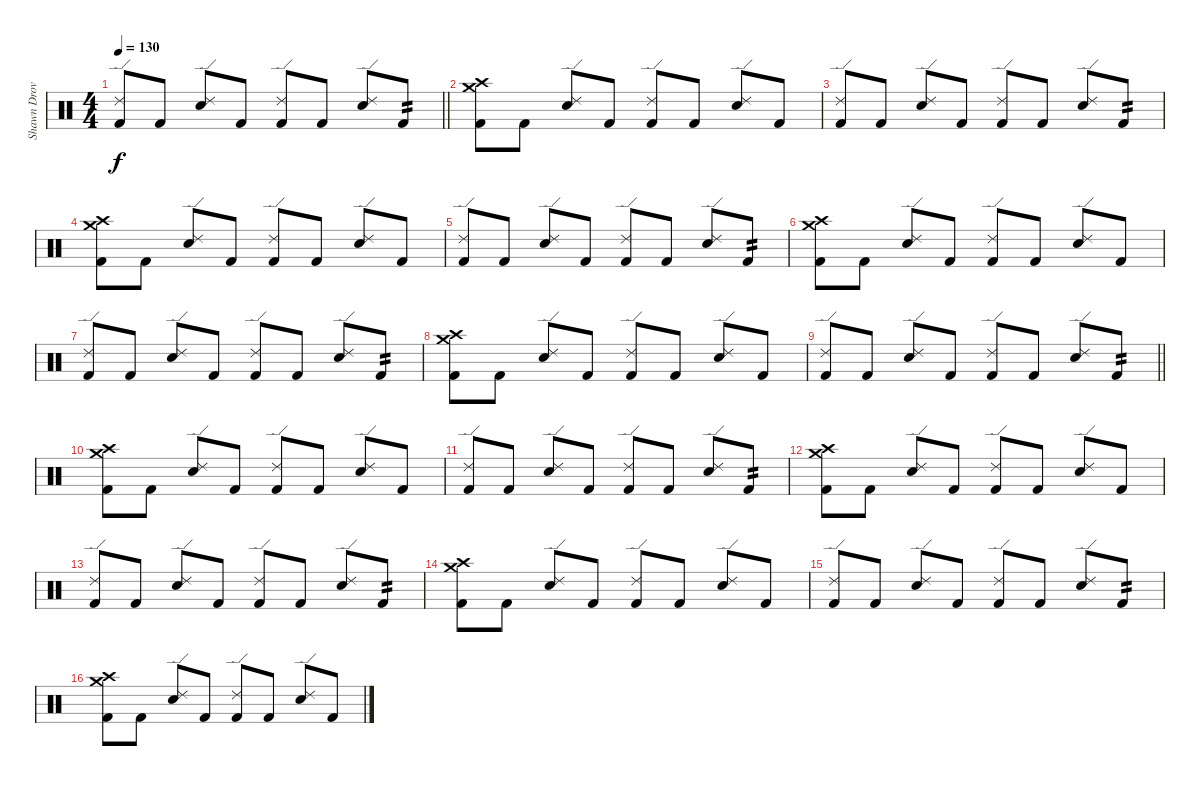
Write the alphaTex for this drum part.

\track ("Shawn Drover" "Shawn Drov") {instrument percussion}
\staff {score}
\articulation defaults
\ts (4 4)
\tempo 130
\clef neutral
\barLineRight lightlight
\ks c
("Ride (edge) 2" "Kick (hit) 2").8{dy f} "Kick (hit) 2".8 ("Ride (edge) 2" "Snare (hit) 2").8 "Kick (hit) 2".8 ("Ride (edge) 2" "Kick (hit) 2").8 "Kick (hit) 2".8 ("Ride (edge) 2" "Snare (hit) 2").8 "Kick (hit) 2".8{tp 2} |
("Crash high (hit)" "Crash medium (hit)" "Kick (hit) 2").8 "Kick (hit) 2".8 ("Ride (edge) 2" "Snare (hit) 2").8 "Kick (hit) 2".8 ("Ride (edge) 2" "Kick (hit) 2").8 "Kick (hit) 2".8 ("Ride (edge) 2" "Snare (hit) 2").8 "Kick (hit) 2".8 |
("Ride (edge) 2" "Kick (hit) 2").8 "Kick (hit) 2".8 ("Ride (edge) 2" "Snare (hit) 2").8 "Kick (hit) 2".8 ("Ride (edge) 2" "Kick (hit) 2").8 "Kick (hit) 2".8 ("Ride (edge) 2" "Snare (hit) 2").8 "Kick (hit) 2".8{tp 2} |
("Crash high (hit)" "Crash medium (hit)" "Kick (hit) 2").8 "Kick (hit) 2".8 ("Ride (edge) 2" "Snare (hit) 2").8 "Kick (hit) 2".8 ("Ride (edge) 2" "Kick (hit) 2").8 "Kick (hit) 2".8 ("Ride (edge) 2" "Snare (hit) 2").8 "Kick (hit) 2".8 |
("Ride (edge) 2" "Kick (hit) 2").8 "Kick (hit) 2".8 ("Ride (edge) 2" "Snare (hit) 2").8 "Kick (hit) 2".8 ("Ride (edge) 2" "Kick (hit) 2").8 "Kick (hit) 2".8 ("Ride (edge) 2" "Snare (hit) 2").8 "Kick (hit) 2".8{tp 2} |
("Crash high (hit)" "Crash medium (hit)" "Kick (hit) 2").8 "Kick (hit) 2".8 ("Ride (edge) 2" "Snare (hit) 2").8 "Kick (hit) 2".8 ("Ride (edge) 2" "Kick (hit) 2").8 "Kick (hit) 2".8 ("Ride (edge) 2" "Snare (hit) 2").8 "Kick (hit) 2".8 |
("Ride (edge) 2" "Kick (hit) 2").8 "Kick (hit) 2".8 ("Ride (edge) 2" "Snare (hit) 2").8 "Kick (hit) 2".8 ("Ride (edge) 2" "Kick (hit) 2").8 "Kick (hit) 2".8 ("Ride (edge) 2" "Snare (hit) 2").8 "Kick (hit) 2".8{tp 2} |
("Crash high (hit)" "Crash medium (hit)" "Kick (hit) 2").8 "Kick (hit) 2".8 ("Ride (edge) 2" "Snare (hit) 2").8 "Kick (hit) 2".8 ("Ride (edge) 2" "Kick (hit) 2").8 "Kick (hit) 2".8 ("Ride (edge) 2" "Snare (hit) 2").8 "Kick (hit) 2".8 |
\barLineRight lightlight
("Ride (edge) 2" "Kick (hit) 2").8 "Kick (hit) 2".8 ("Ride (edge) 2" "Snare (hit) 2").8 "Kick (hit) 2".8 ("Ride (edge) 2" "Kick (hit) 2").8 "Kick (hit) 2".8 ("Ride (edge) 2" "Snare (hit) 2").8 "Kick (hit) 2".8{tp 2} |
("Crash high (hit)" "Crash medium (hit)" "Kick (hit) 2").8 "Kick (hit) 2".8 ("Ride (edge) 2" "Snare (hit) 2").8 "Kick (hit) 2".8 ("Ride (edge) 2" "Kick (hit) 2").8 "Kick (hit) 2".8 ("Ride (edge) 2" "Snare (hit) 2").8 "Kick (hit) 2".8 |
("Ride (edge) 2" "Kick (hit) 2").8 "Kick (hit) 2".8 ("Ride (edge) 2" "Snare (hit) 2").8 "Kick (hit) 2".8 ("Ride (edge) 2" "Kick (hit) 2").8 "Kick (hit) 2".8 ("Ride (edge) 2" "Snare (hit) 2").8 "Kick (hit) 2".8{tp 2} |
("Crash high (hit)" "Crash medium (hit)" "Kick (hit) 2").8 "Kick (hit) 2".8 ("Ride (edge) 2" "Snare (hit) 2").8 "Kick (hit) 2".8 ("Ride (edge) 2" "Kick (hit) 2").8 "Kick (hit) 2".8 ("Ride (edge) 2" "Snare (hit) 2").8 "Kick (hit) 2".8 |
("Ride (edge) 2" "Kick (hit) 2").8 "Kick (hit) 2".8 ("Ride (edge) 2" "Snare (hit) 2").8 "Kick (hit) 2".8 ("Ride (edge) 2" "Kick (hit) 2").8 "Kick (hit) 2".8 ("Ride (edge) 2" "Snare (hit) 2").8 "Kick (hit) 2".8{tp 2} |
("Crash high (hit)" "Crash medium (hit)" "Kick (hit) 2").8 "Kick (hit) 2".8 ("Ride (edge) 2" "Snare (hit) 2").8 "Kick (hit) 2".8 ("Ride (edge) 2" "Kick (hit) 2").8 "Kick (hit) 2".8 ("Ride (edge) 2" "Snare (hit) 2").8 "Kick (hit) 2".8 |
("Ride (edge) 2" "Kick (hit) 2").8 "Kick (hit) 2".8 ("Ride (edge) 2" "Snare (hit) 2").8 "Kick (hit) 2".8 ("Ride (edge) 2" "Kick (hit) 2").8 "Kick (hit) 2".8 ("Ride (edge) 2" "Snare (hit) 2").8 "Kick (hit) 2".8{tp 2} |
("Crash high (hit)" "Crash medium (hit)" "Kick (hit) 2").8 "Kick (hit) 2".8 ("Ride (edge) 2" "Snare (hit) 2").8 "Kick (hit) 2".8 ("Ride (edge) 2" "Kick (hit) 2").8 "Kick (hit) 2".8 ("Ride (edge) 2" "Snare (hit) 2").8 "Kick (hit) 2".8
